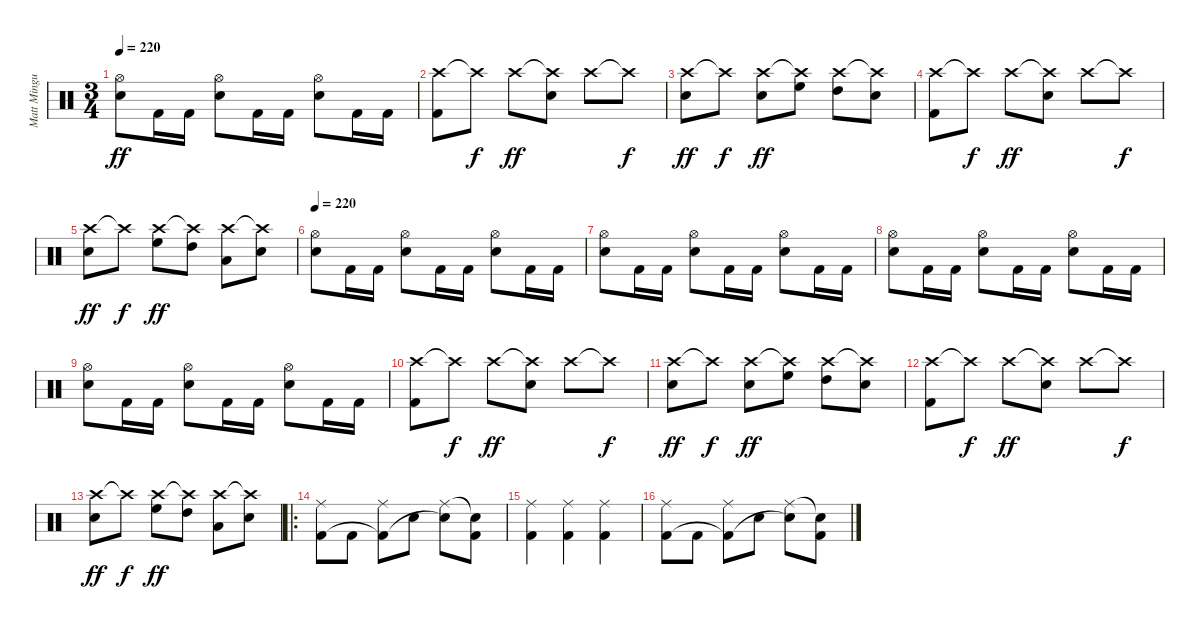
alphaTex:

\track ("Matt Mingus" "Matt Mingu") {instrument percussion}
\staff {score}
\articulation defaults
\ts (3 4)
\tempo 220
\clef neutral
\ks c
("Hi-Hat (open)" "Electric Snare (hit)").8{dy ff} "Kick (hit) 2".16 "Kick (hit) 2".16 ("Hi-Hat (open)" "Electric Snare (hit)").8 "Kick (hit) 2".16 "Kick (hit) 2".16 ("Hi-Hat (open)" "Electric Snare (hit)").8 "Kick (hit) 2".16 "Kick (hit) 2".16 |
("Crash high (hit)" "Kick (hit) 2").8 "Crash high (hit)"{t}.8{dy f} "Crash high (hit)".8{dy ff} ("Crash high (hit)"{t} "Electric Snare (hit)").8 "Crash high (hit)".8 "Crash high (hit)"{t}.8{dy f} |
("Crash high (hit)" "Electric Snare (hit)").8{dy ff} "Crash high (hit)"{t}.8{dy f} ("Crash high (hit)" "Electric Snare (hit)").8{dy ff} ("Crash high (hit)"{t} "High Floor Tom (hit)").8 ("Crash high (hit)" "High Tom (hit)").8 ("Crash high (hit)"{t} "Electric Snare (hit)").8 |
("Crash high (hit)" "Kick (hit) 2").8 "Crash high (hit)"{t}.8{dy f} "Crash high (hit)".8{dy ff} ("Crash high (hit)"{t} "Electric Snare (hit)").8 "Crash high (hit)".8 "Crash high (hit)"{t}.8{dy f} |
("Crash high (hit)" "Electric Snare (hit)").8{dy ff} "Crash high (hit)"{t}.8{dy f} ("Crash high (hit)" "High Floor Tom (hit)").8{dy ff} ("Crash high (hit)"{t} "High Tom (hit)").8 ("Crash high (hit)" "Low Floor Tom (hit)").8 ("Crash high (hit)"{t} "Electric Snare (hit)").8 |
\tempo 220
("Hi-Hat (open)" "Electric Snare (hit)").8 "Kick (hit) 2".16 "Kick (hit) 2".16 ("Hi-Hat (open)" "Electric Snare (hit)").8 "Kick (hit) 2".16 "Kick (hit) 2".16 ("Hi-Hat (open)" "Electric Snare (hit)").8 "Kick (hit) 2".16 "Kick (hit) 2".16 |
("Hi-Hat (open)" "Electric Snare (hit)").8 "Kick (hit) 2".16 "Kick (hit) 2".16 ("Hi-Hat (open)" "Electric Snare (hit)").8 "Kick (hit) 2".16 "Kick (hit) 2".16 ("Hi-Hat (open)" "Electric Snare (hit)").8 "Kick (hit) 2".16 "Kick (hit) 2".16 |
("Hi-Hat (open)" "Electric Snare (hit)").8 "Kick (hit) 2".16 "Kick (hit) 2".16 ("Hi-Hat (open)" "Electric Snare (hit)").8 "Kick (hit) 2".16 "Kick (hit) 2".16 ("Hi-Hat (open)" "Electric Snare (hit)").8 "Kick (hit) 2".16 "Kick (hit) 2".16 |
("Hi-Hat (open)" "Electric Snare (hit)").8 "Kick (hit) 2".16 "Kick (hit) 2".16 ("Hi-Hat (open)" "Electric Snare (hit)").8 "Kick (hit) 2".16 "Kick (hit) 2".16 ("Hi-Hat (open)" "Electric Snare (hit)").8 "Kick (hit) 2".16 "Kick (hit) 2".16 |
("Crash high (hit)" "Kick (hit) 2").8 "Crash high (hit)"{t}.8{dy f} "Crash high (hit)".8{dy ff} ("Crash high (hit)"{t} "Electric Snare (hit)").8 "Crash high (hit)".8 "Crash high (hit)"{t}.8{dy f} |
("Crash high (hit)" "Electric Snare (hit)").8{dy ff} "Crash high (hit)"{t}.8{dy f} ("Crash high (hit)" "Electric Snare (hit)").8{dy ff} ("Crash high (hit)"{t} "High Floor Tom (hit)").8 ("Crash high (hit)" "High Tom (hit)").8 ("Crash high (hit)"{t} "Electric Snare (hit)").8 |
("Crash high (hit)" "Kick (hit) 2").8 "Crash high (hit)"{t}.8{dy f} "Crash high (hit)".8{dy ff} ("Crash high (hit)"{t} "Electric Snare (hit)").8 "Crash high (hit)".8 "Crash high (hit)"{t}.8{dy f} |
("Crash high (hit)" "Electric Snare (hit)").8{dy ff} "Crash high (hit)"{t}.8{dy f} ("Crash high (hit)" "High Floor Tom (hit)").8{dy ff} ("Crash high (hit)"{t} "High Tom (hit)").8 ("Crash high (hit)" "Low Floor Tom (hit)").8 ("Crash high (hit)"{t} "Electric Snare (hit)").8 |
\ro
("Ride (middle)" "Kick (hit) 2").8 "Kick (hit) 2".8 ("Ride (middle)" "Kick (hit) 2"{t}).8 "Electric Snare (hit)".8 ("Ride (middle)" "Electric Snare (hit)"{t}).8 ("Electric Snare (hit)"{t} "Kick (hit) 2").8 |
("Ride (middle)" "Kick (hit) 2").4 ("Ride (middle)" "Kick (hit) 2").4 ("Ride (middle)" "Kick (hit) 2").4 |
("Ride (middle)" "Kick (hit) 2").8 "Kick (hit) 2".8 ("Ride (middle)" "Kick (hit) 2"{t}).8 "Electric Snare (hit)".8 ("Ride (middle)" "Electric Snare (hit)"{t}).8 ("Electric Snare (hit)"{t} "Kick (hit) 2").8
